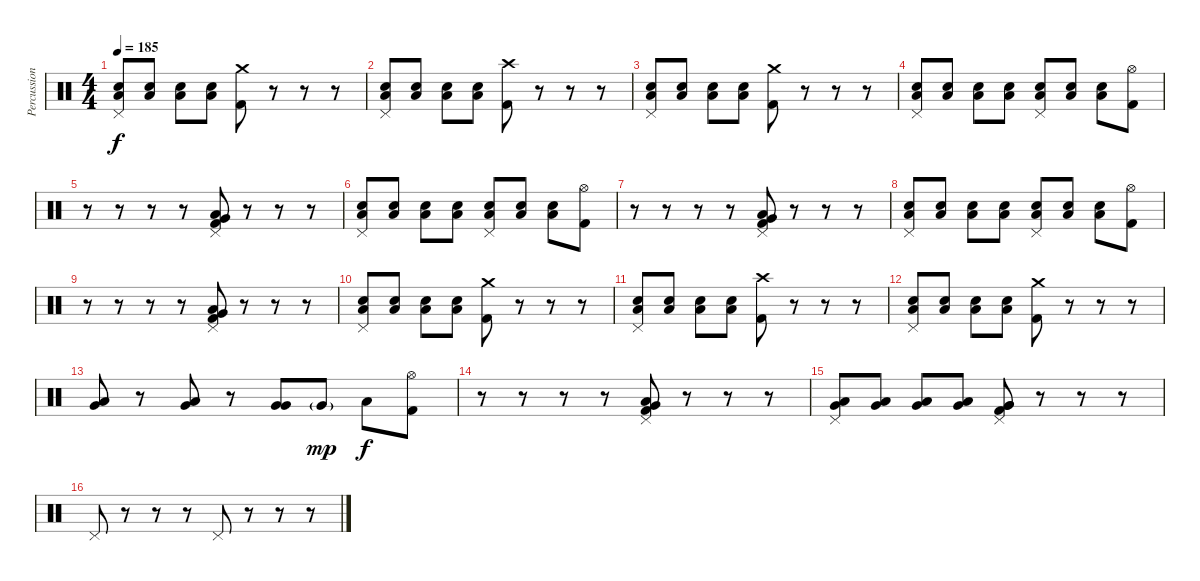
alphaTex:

\track ("Percussion" "Percussion") {instrument percussion}
\staff {score}
\articulation defaults
\ts (4 4)
\tempo 185
\clef neutral
\ks c
("Pedal Hi-Hat (hit)" "Low Floor Tom (hit)" "Electric Snare (hit)").8{dy f} ("Low Floor Tom (hit)" "Electric Snare (hit)").8 ("Low Floor Tom (hit)" "Electric Snare (hit)").8 ("Low Floor Tom (hit)" "Electric Snare (hit)").8 ("Crash medium (hit)" "Kick (hit) 2").8 r.8 r.8 r.8 |
("Pedal Hi-Hat (hit)" "Low Floor Tom (hit)" "Electric Snare (hit)").8 ("Low Floor Tom (hit)" "Electric Snare (hit)").8 ("Low Floor Tom (hit)" "Electric Snare (hit)").8 ("Low Floor Tom (hit)" "Electric Snare (hit)").8 ("Crash high (hit)" "Kick (hit) 2").8 r.8 r.8 r.8 |
("Pedal Hi-Hat (hit)" "Low Floor Tom (hit)" "Electric Snare (hit)").8 ("Low Floor Tom (hit)" "Electric Snare (hit)").8 ("Low Floor Tom (hit)" "Electric Snare (hit)").8 ("Low Floor Tom (hit)" "Electric Snare (hit)").8 ("Crash medium (hit)" "Kick (hit) 2").8 r.8 r.8 r.8 |
("Pedal Hi-Hat (hit)" "Low Floor Tom (hit)" "Electric Snare (hit)").8 ("Low Floor Tom (hit)" "Electric Snare (hit)").8 ("Low Floor Tom (hit)" "Electric Snare (hit)").8 ("Low Floor Tom (hit)" "Electric Snare (hit)").8 ("Pedal Hi-Hat (hit)" "Low Floor Tom (hit)" "Electric Snare (hit)").8 ("Low Floor Tom (hit)" "Electric Snare (hit)").8 ("Low Floor Tom (hit)" "Electric Snare (hit)").8 ("Hi-Hat (open)" "Kick (hit) 2").8 |
r.8 r.8 r.8 r.8 ("Pedal Hi-Hat (hit)" "Very Low Tom (hit)" "Low Floor Tom (hit)" "Kick (hit) 2").8 r.8 r.8 r.8 |
("Pedal Hi-Hat (hit)" "Low Floor Tom (hit)" "Electric Snare (hit)").8 ("Low Floor Tom (hit)" "Electric Snare (hit)").8 ("Low Floor Tom (hit)" "Electric Snare (hit)").8 ("Low Floor Tom (hit)" "Electric Snare (hit)").8 ("Pedal Hi-Hat (hit)" "Low Floor Tom (hit)" "Electric Snare (hit)").8 ("Low Floor Tom (hit)" "Electric Snare (hit)").8 ("Low Floor Tom (hit)" "Electric Snare (hit)").8 ("Hi-Hat (open)" "Kick (hit) 2").8 |
r.8 r.8 r.8 r.8 ("Pedal Hi-Hat (hit)" "Very Low Tom (hit)" "Low Floor Tom (hit)" "Kick (hit) 2").8 r.8 r.8 r.8 |
("Pedal Hi-Hat (hit)" "Low Floor Tom (hit)" "Electric Snare (hit)").8 ("Low Floor Tom (hit)" "Electric Snare (hit)").8 ("Low Floor Tom (hit)" "Electric Snare (hit)").8 ("Low Floor Tom (hit)" "Electric Snare (hit)").8 ("Pedal Hi-Hat (hit)" "Low Floor Tom (hit)" "Electric Snare (hit)").8 ("Low Floor Tom (hit)" "Electric Snare (hit)").8 ("Low Floor Tom (hit)" "Electric Snare (hit)").8 ("Hi-Hat (open)" "Kick (hit) 2").8 |
r.8 r.8 r.8 r.8 ("Pedal Hi-Hat (hit)" "Very Low Tom (hit)" "Low Floor Tom (hit)" "Kick (hit) 2").8 r.8 r.8 r.8 |
("Pedal Hi-Hat (hit)" "Low Floor Tom (hit)" "Electric Snare (hit)").8 ("Low Floor Tom (hit)" "Electric Snare (hit)").8 ("Low Floor Tom (hit)" "Electric Snare (hit)").8 ("Low Floor Tom (hit)" "Electric Snare (hit)").8 ("Crash medium (hit)" "Kick (hit) 2").8 r.8 r.8 r.8 |
("Pedal Hi-Hat (hit)" "Low Floor Tom (hit)" "Electric Snare (hit)").8 ("Low Floor Tom (hit)" "Electric Snare (hit)").8 ("Low Floor Tom (hit)" "Electric Snare (hit)").8 ("Low Floor Tom (hit)" "Electric Snare (hit)").8 ("Crash high (hit)" "Kick (hit) 2").8 r.8 r.8 r.8 |
("Pedal Hi-Hat (hit)" "Low Floor Tom (hit)" "Electric Snare (hit)").8 ("Low Floor Tom (hit)" "Electric Snare (hit)").8 ("Low Floor Tom (hit)" "Electric Snare (hit)").8 ("Low Floor Tom (hit)" "Electric Snare (hit)").8 ("Crash medium (hit)" "Kick (hit) 2").8 r.8 r.8 r.8 |
("Very Low Tom (hit)" "Low Tom (hit)").8 r.8 ("Low Floor Tom (hit)" "Very Low Tom (hit)").8 r.8 ("Very Low Tom (hit)" "Very Low Tom (hit)").8 "Very Low Tom (hit)"{g}.8{dy mp} "Low Floor Tom (hit)".8{dy f} ("Hi-Hat (open)" "Kick (hit) 2").8 |
r.8 r.8 r.8 r.8 ("Pedal Hi-Hat (hit)" "Low Floor Tom (hit)" "Very Low Tom (hit)" "Kick (hit) 2").8 r.8 r.8 r.8 |
("Pedal Hi-Hat (hit)" "Low Floor Tom (hit)" "Very Low Tom (hit)").8 ("Low Floor Tom (hit)" "Very Low Tom (hit)").8 ("Low Floor Tom (hit)" "Very Low Tom (hit)").8 ("Low Floor Tom (hit)" "Very Low Tom (hit)").8 ("Pedal Hi-Hat (hit)" "Very Low Tom (hit)" "Very Low Tom (hit)" "Kick (hit) 2").8 r.8 r.8 r.8 |
"Pedal Hi-Hat (hit)".8 r.8 r.8 r.8 "Pedal Hi-Hat (hit)".8 r.8 r.8 r.8
